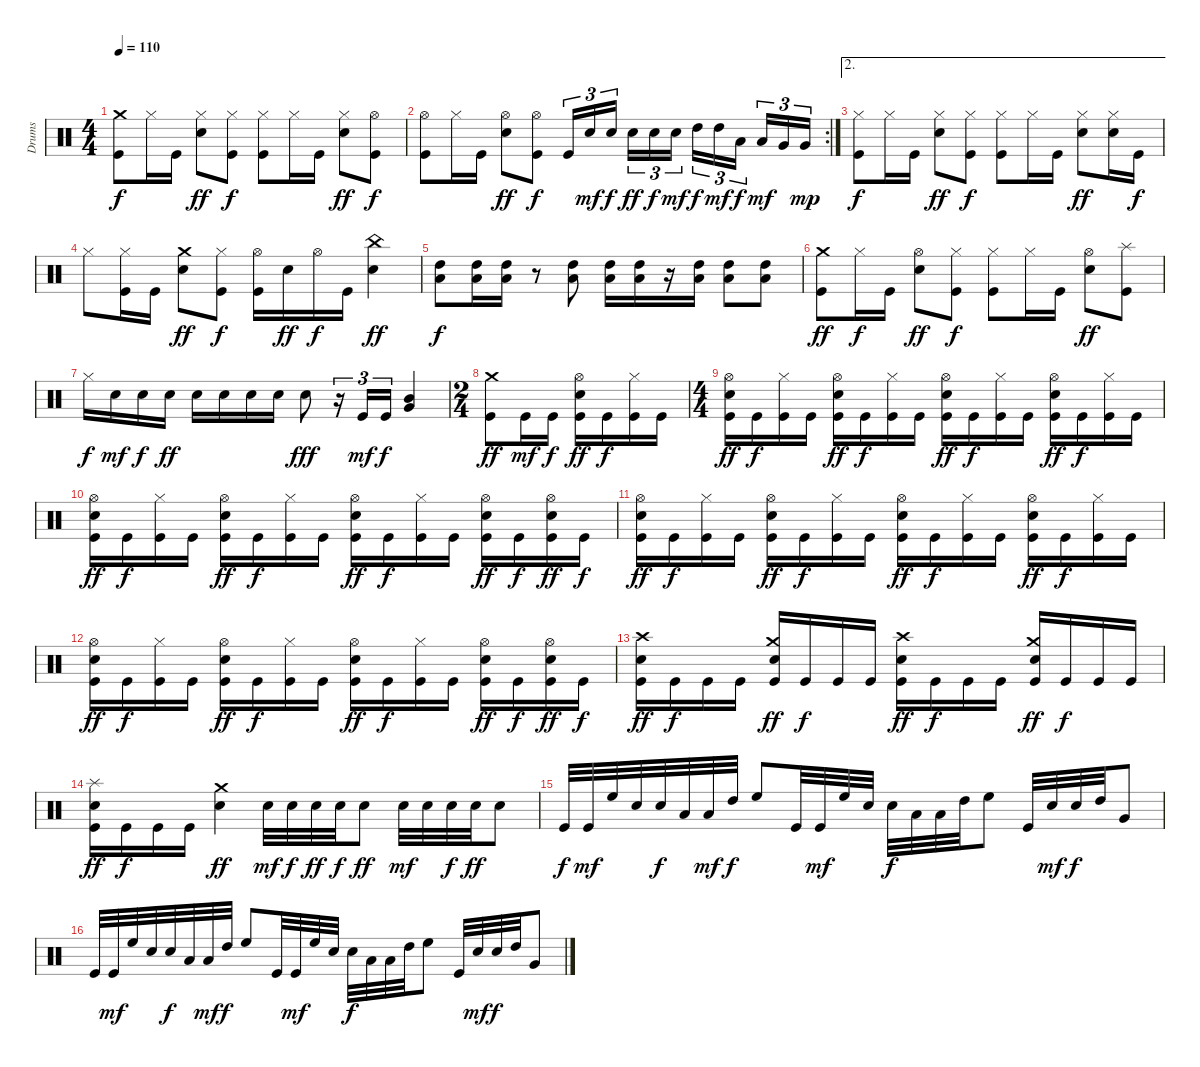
\track ("Drums" "Drums") {instrument percussion}
\staff {score}
\articulation defaults
\ts (4 4)
\tempo 110
\clef neutral
\ks c
("Kick (hit)" "Crash medium (hit)").8{dy f} "Hi-Hat (closed)".16 "Kick (hit)".16 ("Electric Snare (hit)" "Hi-Hat (closed)").8{dy ff} ("Kick (hit)" "Hi-Hat (closed)").8{dy f} ("Kick (hit)" "Hi-Hat (closed)").8 "Hi-Hat (closed)".16 "Kick (hit)".16 ("Electric Snare (hit)" "Hi-Hat (closed)").8{dy ff} ("Kick (hit)" "Hi-Hat (open)").8{dy f} |
\rc 2
("Kick (hit)" "Hi-Hat (open)").8 "Hi-Hat (closed)".16 "Kick (hit)".16 ("Electric Snare (hit)" "Hi-Hat (open)").8{dy ff} ("Kick (hit)" "Hi-Hat (open)").8{dy f} "Kick (hit)".16{tu (3 2)} "Electric Snare (hit)".16{tu (3 2) dy mf} "Electric Snare (hit)".16{tu (3 2) dy f} "Electric Snare (hit)".16{tu (3 2) dy ff} "Electric Snare (hit)".16{tu (3 2) dy f} "Electric Snare (hit)".16{tu (3 2) dy mf} "High Tom (hit)".16{tu (3 2) dy f} "High Tom (hit)".16{tu (3 2) dy mf} "Low Tom (hit)".16{tu (3 2) dy f} "Low Tom (hit)".16{tu (3 2) dy mf} "Very Low Tom (hit)".16{tu (3 2)} "Very Low Tom (hit)".16{tu (3 2) dy mp} |
\ae 2
("Kick (hit)" "Hi-Hat (closed)").8{dy f} "Hi-Hat (closed)".16 "Kick (hit)".16 ("Electric Snare (hit)" "Hi-Hat (closed)").8{dy ff} ("Kick (hit)" "Hi-Hat (closed)").8{dy f} ("Kick (hit)" "Hi-Hat (closed)").8 "Hi-Hat (closed)".16 "Kick (hit)".16 ("Electric Snare (hit)" "Hi-Hat (closed)").8{dy ff} ("Electric Snare (hit)" "Hi-Hat (closed)").16 "Kick (hit)".16{dy f} |
"Hi-Hat (closed)".8 ("Kick (hit)" "Hi-Hat (closed)").16 "Kick (hit)".16 ("Electric Snare (hit)" "Crash medium (hit)").8{dy ff} ("Kick (hit)" "Hi-Hat (closed)").8{dy f} ("Kick (hit)" "Hi-Hat (open)").16 "Electric Snare (hit)".16{dy ff} "Hi-Hat (open)".16{dy f} "Kick (hit)".16 ("Electric Snare (hit)" "China (hit)").4{dy ff} |
("High Tom (hit)" "Low Tom (hit)").8{dy f} ("High Tom (hit)" "Low Tom (hit)").16 ("High Tom (hit)" "Low Tom (hit)").16 r.8 ("High Tom (hit)" "Low Tom (hit)").8 ("High Tom (hit)" "Low Tom (hit)").16 ("High Tom (hit)" "Low Tom (hit)").16 r.16 ("High Tom (hit)" "Low Tom (hit)").16 ("High Tom (hit)" "Low Tom (hit)").8 ("High Tom (hit)" "Low Tom (hit)").8 |
("Kick (hit)" "Crash medium (hit)").8{dy ff} "Hi-Hat (closed)".16{dy f} "Kick (hit)".16 ("Electric Snare (hit)" "Hi-Hat (open)").8{dy ff} ("Kick (hit)" "Hi-Hat (closed)").8{dy f} ("Kick (hit)" "Hi-Hat (closed)").8 "Hi-Hat (closed)".16 "Kick (hit)".16 ("Electric Snare (hit)" "Hi-Hat (open)").8{dy ff} ("Kick (hit)" "Splash (hit)").8 |
"Hi-Hat (closed)".16{dy f} "Electric Snare (hit)".16{dy mf} "Electric Snare (hit)".16{dy f} "Electric Snare (hit)".16{dy ff} "Electric Snare (hit)".16 "Electric Snare (hit)".16 "Electric Snare (hit)".16 "Electric Snare (hit)".16 "Electric Snare (hit)".8{dy fff} r.16{tu (3 2)} "Kick (hit)".16{tu (3 2) dy mf} "Kick (hit)".16{tu (3 2) dy f} ("Mid Tom (hit)" "Very Low Tom (hit)").4 |
\ts (2 4)
("Kick (hit)" "Crash medium (hit)").8{dy ff} "Kick (hit)".16{dy mf} "Kick (hit)".16{dy f} ("Kick (hit)" "Electric Snare (hit)" "Hi-Hat (open)").16{dy ff} "Kick (hit)".16{dy f} ("Kick (hit)" "Hi-Hat (closed)").16 "Kick (hit)".16 |
\ts (4 4)
("Kick (hit)" "Electric Snare (hit)" "Hi-Hat (open)").16{dy ff} "Kick (hit)".16{dy f} ("Kick (hit)" "Hi-Hat (closed)").16 "Kick (hit)".16 ("Kick (hit)" "Electric Snare (hit)" "Hi-Hat (open)").16{dy ff} "Kick (hit)".16{dy f} ("Kick (hit)" "Hi-Hat (closed)").16 "Kick (hit)".16 ("Kick (hit)" "Electric Snare (hit)" "Hi-Hat (open)").16{dy ff} "Kick (hit)".16{dy f} ("Kick (hit)" "Hi-Hat (closed)").16 "Kick (hit)".16 ("Kick (hit)" "Electric Snare (hit)" "Hi-Hat (open)").16{dy ff} "Kick (hit)".16{dy f} ("Kick (hit)" "Hi-Hat (closed)").16 "Kick (hit)".16 |
("Kick (hit)" "Electric Snare (hit)" "Hi-Hat (open)").16{dy ff} "Kick (hit)".16{dy f} ("Kick (hit)" "Hi-Hat (closed)").16 "Kick (hit)".16 ("Kick (hit)" "Electric Snare (hit)" "Hi-Hat (open)").16{dy ff} "Kick (hit)".16{dy f} ("Kick (hit)" "Hi-Hat (closed)").16 "Kick (hit)".16 ("Kick (hit)" "Electric Snare (hit)" "Hi-Hat (open)").16{dy ff} "Kick (hit)".16{dy f} ("Kick (hit)" "Hi-Hat (closed)").16 "Kick (hit)".16 ("Kick (hit)" "Electric Snare (hit)" "Hi-Hat (open)").16{dy ff} "Kick (hit)".16{dy f} ("Kick (hit)" "Electric Snare (hit)" "Hi-Hat (open)").16{dy ff} "Kick (hit)".16{dy f} |
("Kick (hit)" "Electric Snare (hit)" "Hi-Hat (open)").16{dy ff} "Kick (hit)".16{dy f} ("Kick (hit)" "Hi-Hat (closed)").16 "Kick (hit)".16 ("Kick (hit)" "Electric Snare (hit)" "Hi-Hat (open)").16{dy ff} "Kick (hit)".16{dy f} ("Kick (hit)" "Hi-Hat (closed)").16 "Kick (hit)".16 ("Kick (hit)" "Electric Snare (hit)" "Hi-Hat (open)").16{dy ff} "Kick (hit)".16{dy f} ("Kick (hit)" "Hi-Hat (closed)").16 "Kick (hit)".16 ("Kick (hit)" "Electric Snare (hit)" "Hi-Hat (open)").16{dy ff} "Kick (hit)".16{dy f} ("Kick (hit)" "Hi-Hat (closed)").16 "Kick (hit)".16 |
("Kick (hit)" "Electric Snare (hit)" "Hi-Hat (open)").16{dy ff} "Kick (hit)".16{dy f} ("Kick (hit)" "Hi-Hat (closed)").16 "Kick (hit)".16 ("Kick (hit)" "Electric Snare (hit)" "Hi-Hat (open)").16{dy ff} "Kick (hit)".16{dy f} ("Kick (hit)" "Hi-Hat (closed)").16 "Kick (hit)".16 ("Kick (hit)" "Electric Snare (hit)" "Hi-Hat (open)").16{dy ff} "Kick (hit)".16{dy f} ("Kick (hit)" "Hi-Hat (closed)").16 "Kick (hit)".16 ("Kick (hit)" "Electric Snare (hit)" "Hi-Hat (open)").16{dy ff} "Kick (hit)".16{dy f} ("Kick (hit)" "Electric Snare (hit)" "Hi-Hat (open)").16{dy ff} "Kick (hit)".16{dy f} |
("Kick (hit)" "Electric Snare (hit)" "Crash high (hit)").16{dy ff} "Kick (hit)".16{dy f} "Kick (hit)".16 "Kick (hit)".16 ("Kick (hit)" "Electric Snare (hit)" "Crash medium (hit)").16{dy ff} "Kick (hit)".16{dy f} "Kick (hit)".16 "Kick (hit)".16 ("Kick (hit)" "Electric Snare (hit)" "Crash high (hit)").16{dy ff} "Kick (hit)".16{dy f} "Kick (hit)".16 "Kick (hit)".16 ("Kick (hit)" "Electric Snare (hit)" "Crash medium (hit)").16{dy ff} "Kick (hit)".16{dy f} "Kick (hit)".16 "Kick (hit)".16 |
("Kick (hit)" "Electric Snare (hit)" "Splash (hit)").16{dy ff} "Kick (hit)".16{dy f} "Kick (hit)".16 "Kick (hit)".16 ("Electric Snare (hit)" "Crash medium (hit)").4{dy ff} "Electric Snare (hit)".32{dy mf} "Electric Snare (hit)".32{dy f} "Electric Snare (hit)".32{dy ff} "Electric Snare (hit)".32{dy f} "Electric Snare (hit)".8{dy ff} "Electric Snare (hit)".32{dy mf} "Electric Snare (hit)".32 "Electric Snare (hit)".32{dy f} "Electric Snare (hit)".32{dy ff} "Electric Snare (hit)".8 |
"Kick (hit)".32{dy f} "Kick (hit)".32{dy mf} "High Floor Tom (hit)".32 "Electric Snare (hit)".32 "Electric Snare (hit)".32{dy f} "Low Tom (hit)".32 "Low Tom (hit)".32{dy mf} "High Tom (hit)".32{dy f} "High Floor Tom (hit)".8 "Kick (hit)".32 "Kick (hit)".32{dy mf} "High Floor Tom (hit)".32 "Electric Snare (hit)".32 "Electric Snare (hit)".32{dy f} "Low Tom (hit)".32 "Low Tom (hit)".32 "High Tom (hit)".32 "High Floor Tom (hit)".8 "Kick (hit)".32 "Electric Snare (hit)".32{dy mf} "Electric Snare (hit)".32{dy f} "High Tom (hit)".32 "Very Low Tom (hit)".8 |
"Kick (hit)".32 "Kick (hit)".32{dy mf} "High Floor Tom (hit)".32 "Electric Snare (hit)".32 "Electric Snare (hit)".32{dy f} "Low Tom (hit)".32 "Low Tom (hit)".32{dy mf} "High Tom (hit)".32{dy f} "High Floor Tom (hit)".8 "Kick (hit)".32 "Kick (hit)".32{dy mf} "High Floor Tom (hit)".32 "Electric Snare (hit)".32 "Electric Snare (hit)".32{dy f} "Low Tom (hit)".32 "Low Tom (hit)".32 "High Tom (hit)".32 "High Floor Tom (hit)".8 "Kick (hit)".32 "Electric Snare (hit)".32{dy mf} "Electric Snare (hit)".32{dy f} "High Tom (hit)".32 "Very Low Tom (hit)".8
